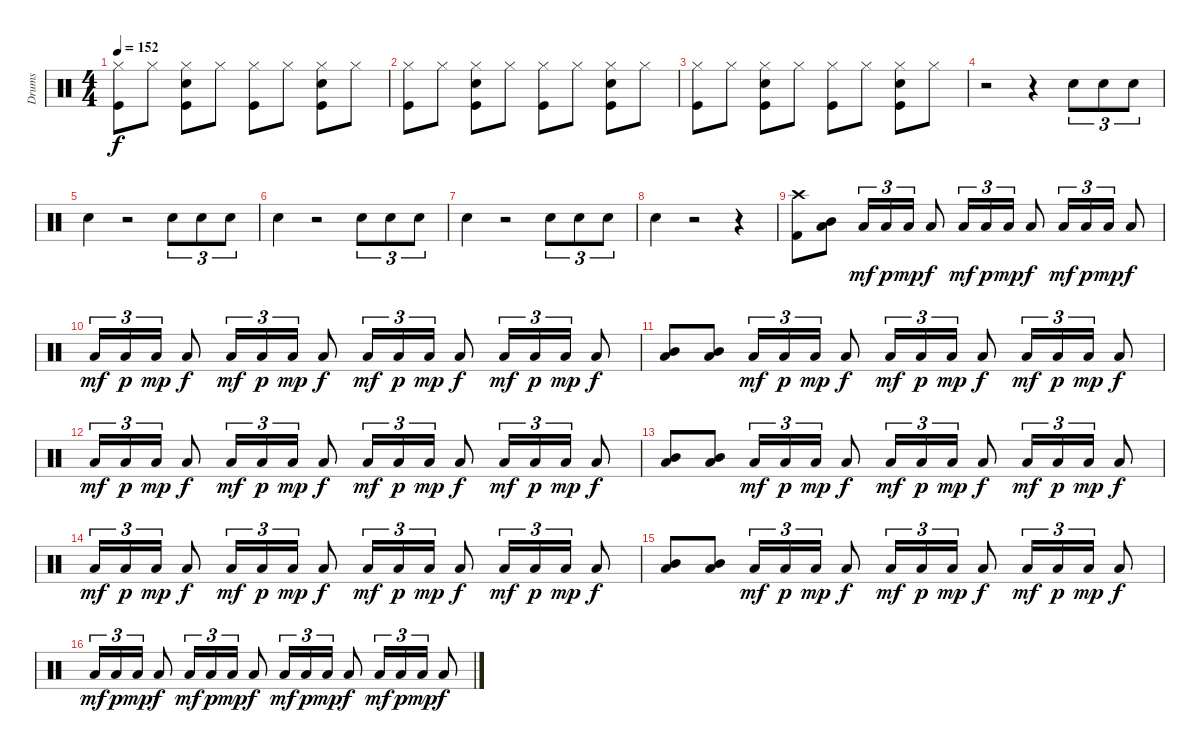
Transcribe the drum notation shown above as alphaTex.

\track ("Drums" "Drums") {instrument percussion}
\staff {score}
\articulation defaults
\ts (4 4)
\tempo 152
\clef neutral
\ks c
("Hi-Hat (closed)" "Kick (hit)").8{dy f} "Hi-Hat (closed)".8 ("Hi-Hat (closed)" "Electric Snare (hit)" "Kick (hit)").8 "Hi-Hat (closed)".8 ("Hi-Hat (closed)" "Kick (hit)").8 "Hi-Hat (closed)".8 ("Hi-Hat (closed)" "Electric Snare (hit)" "Kick (hit)").8 "Hi-Hat (closed)".8 |
("Hi-Hat (closed)" "Kick (hit)").8 "Hi-Hat (closed)".8 ("Hi-Hat (closed)" "Electric Snare (hit)" "Kick (hit)").8 "Hi-Hat (closed)".8 ("Hi-Hat (closed)" "Kick (hit)").8 "Hi-Hat (closed)".8 ("Hi-Hat (closed)" "Electric Snare (hit)" "Kick (hit)").8 "Hi-Hat (closed)".8 |
("Hi-Hat (closed)" "Kick (hit)").8 "Hi-Hat (closed)".8 ("Hi-Hat (closed)" "Electric Snare (hit)" "Kick (hit)").8 "Hi-Hat (closed)".8 ("Hi-Hat (closed)" "Kick (hit)").8 "Hi-Hat (closed)".8 ("Hi-Hat (closed)" "Electric Snare (hit)" "Kick (hit)").8 "Hi-Hat (closed)".8 |
r.2 r.4 "Snare (hit) 2".8{tu (3 2)} "Snare (hit) 2".8{tu (3 2)} "Snare (hit) 2".8{tu (3 2)} |
"Snare (hit) 2".4 r.2 "Snare (hit) 2".8{tu (3 2)} "Snare (hit) 2".8{tu (3 2)} "Snare (hit) 2".8{tu (3 2)} |
"Snare (hit) 2".4 r.2 "Snare (hit) 2".8{tu (3 2)} "Snare (hit) 2".8{tu (3 2)} "Snare (hit) 2".8{tu (3 2)} |
"Snare (hit) 2".4 r.2 "Snare (hit) 2".8{tu (3 2)} "Snare (hit) 2".8{tu (3 2)} "Snare (hit) 2".8{tu (3 2)} |
"Snare (hit) 2".4 r.2 r.4 |
("Crash high (hit)" "Kick (hit) 2").8 ("Mid Tom (hit)" "Low Tom (hit)").8 "Low Tom (hit)".16{tu (3 2) dy mf} "Low Tom (hit)".16{tu (3 2) dy p} "Low Tom (hit)".16{tu (3 2) dy mp} "Low Tom (hit)".8{dy f} "Low Tom (hit)".16{tu (3 2) dy mf} "Low Tom (hit)".16{tu (3 2) dy p} "Low Tom (hit)".16{tu (3 2) dy mp} "Low Tom (hit)".8{dy f} "Low Tom (hit)".16{tu (3 2) dy mf} "Low Tom (hit)".16{tu (3 2) dy p} "Low Tom (hit)".16{tu (3 2) dy mp} "Low Tom (hit)".8{dy f} |
"Low Tom (hit)".16{tu (3 2) dy mf} "Low Tom (hit)".16{tu (3 2) dy p} "Low Tom (hit)".16{tu (3 2) dy mp} "Low Tom (hit)".8{dy f} "Low Tom (hit)".16{tu (3 2) dy mf} "Low Tom (hit)".16{tu (3 2) dy p} "Low Tom (hit)".16{tu (3 2) dy mp} "Low Tom (hit)".8{dy f} "Low Tom (hit)".16{tu (3 2) dy mf} "Low Tom (hit)".16{tu (3 2) dy p} "Low Tom (hit)".16{tu (3 2) dy mp} "Low Tom (hit)".8{dy f} "Low Tom (hit)".16{tu (3 2) dy mf} "Low Tom (hit)".16{tu (3 2) dy p} "Low Tom (hit)".16{tu (3 2) dy mp} "Low Tom (hit)".8{dy f} |
("Mid Tom (hit)" "Low Tom (hit)").8 ("Mid Tom (hit)" "Low Tom (hit)").8 "Low Tom (hit)".16{tu (3 2) dy mf} "Low Tom (hit)".16{tu (3 2) dy p} "Low Tom (hit)".16{tu (3 2) dy mp} "Low Tom (hit)".8{dy f} "Low Tom (hit)".16{tu (3 2) dy mf} "Low Tom (hit)".16{tu (3 2) dy p} "Low Tom (hit)".16{tu (3 2) dy mp} "Low Tom (hit)".8{dy f} "Low Tom (hit)".16{tu (3 2) dy mf} "Low Tom (hit)".16{tu (3 2) dy p} "Low Tom (hit)".16{tu (3 2) dy mp} "Low Tom (hit)".8{dy f} |
"Low Tom (hit)".16{tu (3 2) dy mf} "Low Tom (hit)".16{tu (3 2) dy p} "Low Tom (hit)".16{tu (3 2) dy mp} "Low Tom (hit)".8{dy f} "Low Tom (hit)".16{tu (3 2) dy mf} "Low Tom (hit)".16{tu (3 2) dy p} "Low Tom (hit)".16{tu (3 2) dy mp} "Low Tom (hit)".8{dy f} "Low Tom (hit)".16{tu (3 2) dy mf} "Low Tom (hit)".16{tu (3 2) dy p} "Low Tom (hit)".16{tu (3 2) dy mp} "Low Tom (hit)".8{dy f} "Low Tom (hit)".16{tu (3 2) dy mf} "Low Tom (hit)".16{tu (3 2) dy p} "Low Tom (hit)".16{tu (3 2) dy mp} "Low Tom (hit)".8{dy f} |
("Mid Tom (hit)" "Low Tom (hit)").8 ("Mid Tom (hit)" "Low Tom (hit)").8 "Low Tom (hit)".16{tu (3 2) dy mf} "Low Tom (hit)".16{tu (3 2) dy p} "Low Tom (hit)".16{tu (3 2) dy mp} "Low Tom (hit)".8{dy f} "Low Tom (hit)".16{tu (3 2) dy mf} "Low Tom (hit)".16{tu (3 2) dy p} "Low Tom (hit)".16{tu (3 2) dy mp} "Low Tom (hit)".8{dy f} "Low Tom (hit)".16{tu (3 2) dy mf} "Low Tom (hit)".16{tu (3 2) dy p} "Low Tom (hit)".16{tu (3 2) dy mp} "Low Tom (hit)".8{dy f} |
"Low Tom (hit)".16{tu (3 2) dy mf} "Low Tom (hit)".16{tu (3 2) dy p} "Low Tom (hit)".16{tu (3 2) dy mp} "Low Tom (hit)".8{dy f} "Low Tom (hit)".16{tu (3 2) dy mf} "Low Tom (hit)".16{tu (3 2) dy p} "Low Tom (hit)".16{tu (3 2) dy mp} "Low Tom (hit)".8{dy f} "Low Tom (hit)".16{tu (3 2) dy mf} "Low Tom (hit)".16{tu (3 2) dy p} "Low Tom (hit)".16{tu (3 2) dy mp} "Low Tom (hit)".8{dy f} "Low Tom (hit)".16{tu (3 2) dy mf} "Low Tom (hit)".16{tu (3 2) dy p} "Low Tom (hit)".16{tu (3 2) dy mp} "Low Tom (hit)".8{dy f} |
("Mid Tom (hit)" "Low Tom (hit)").8 ("Mid Tom (hit)" "Low Tom (hit)").8 "Low Tom (hit)".16{tu (3 2) dy mf} "Low Tom (hit)".16{tu (3 2) dy p} "Low Tom (hit)".16{tu (3 2) dy mp} "Low Tom (hit)".8{dy f} "Low Tom (hit)".16{tu (3 2) dy mf} "Low Tom (hit)".16{tu (3 2) dy p} "Low Tom (hit)".16{tu (3 2) dy mp} "Low Tom (hit)".8{dy f} "Low Tom (hit)".16{tu (3 2) dy mf} "Low Tom (hit)".16{tu (3 2) dy p} "Low Tom (hit)".16{tu (3 2) dy mp} "Low Tom (hit)".8{dy f} |
"Low Tom (hit)".16{tu (3 2) dy mf} "Low Tom (hit)".16{tu (3 2) dy p} "Low Tom (hit)".16{tu (3 2) dy mp} "Low Tom (hit)".8{dy f} "Low Tom (hit)".16{tu (3 2) dy mf} "Low Tom (hit)".16{tu (3 2) dy p} "Low Tom (hit)".16{tu (3 2) dy mp} "Low Tom (hit)".8{dy f} "Low Tom (hit)".16{tu (3 2) dy mf} "Low Tom (hit)".16{tu (3 2) dy p} "Low Tom (hit)".16{tu (3 2) dy mp} "Low Tom (hit)".8{dy f} "Low Tom (hit)".16{tu (3 2) dy mf} "Low Tom (hit)".16{tu (3 2) dy p} "Low Tom (hit)".16{tu (3 2) dy mp} "Low Tom (hit)".8{dy f}
